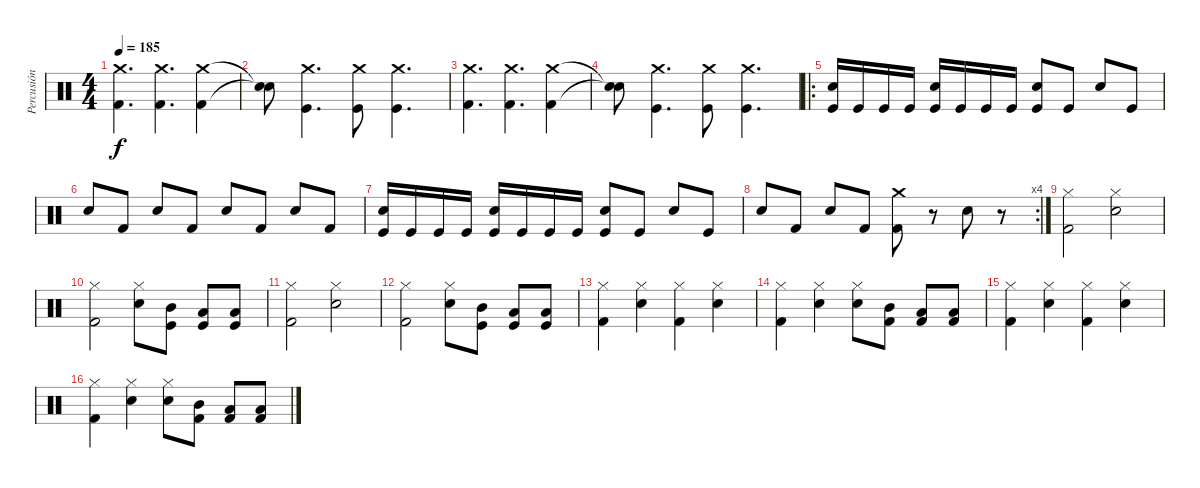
\track ("Percusión" "Percusión") {instrument percussion}
\staff {score}
\articulation defaults
\ts (4 4)
\tempo 185
\clef neutral
\ks c
("Crash medium (hit)" "Kick (hit) 2").4{d dy f} ("Crash medium (hit)" "Kick (hit) 2").4{d} ("Crash medium (hit)" "Kick (hit) 2").4 |
("Snare (hit)"{t} "Snare (hit)"{t}).8 ("Crash medium (hit)" "Kick (hit)").4{d} ("Crash medium (hit)" "Kick (hit)").8 ("Crash medium (hit)" "Kick (hit)").4{d} |
("Crash medium (hit)" "Kick (hit) 2").4{d} ("Crash medium (hit)" "Kick (hit) 2").4{d} ("Crash medium (hit)" "Kick (hit) 2").4 |
("Snare (hit)"{t} "Snare (hit)"{t}).8 ("Crash medium (hit)" "Kick (hit)").4{d} ("Crash medium (hit)" "Kick (hit)").8 ("Crash medium (hit)" "Kick (hit)").4{d} |
\ro
("Snare (hit) 2" "Kick (hit)").16 "Kick (hit)".16 "Kick (hit)".16 "Kick (hit)".16 ("Snare (hit) 2" "Kick (hit)").16 "Kick (hit)".16 "Kick (hit)".16 "Kick (hit)".16 ("Snare (hit) 2" "Kick (hit)").8 "Kick (hit)".8 "Snare (hit) 2".8 "Kick (hit)".8 |
"Snare (hit) 2".8 "Kick (hit) 2".8 "Snare (hit) 2".8 "Kick (hit) 2".8 "Snare (hit) 2".8 "Kick (hit) 2".8 "Snare (hit) 2".8 "Kick (hit) 2".8 |
("Snare (hit) 2" "Kick (hit)").16 "Kick (hit)".16 "Kick (hit)".16 "Kick (hit)".16 ("Snare (hit) 2" "Kick (hit)").16 "Kick (hit)".16 "Kick (hit)".16 "Kick (hit)".16 ("Snare (hit) 2" "Kick (hit)").8 "Kick (hit)".8 "Snare (hit) 2".8 "Kick (hit)".8 |
\rc 4 "Snare (hit) 2".8 "Kick (hit) 2".8 "Snare (hit) 2".8 "Kick (hit) 2".8
("Crash medium (hit)" "Kick (hit) 2").8 r.8 "Snare (hit) 2".8 r.8 |
("Hi-Hat (closed)" "Kick (hit) 2").2 ("Hi-Hat (closed)" "Snare (hit) 2").2 |
("Hi-Hat (closed)" "Kick (hit) 2").2 ("Hi-Hat (closed)" "Snare (hit) 2").8 ("Kick (hit)" "Mid Tom (hit)").8 ("Kick (hit)" "Low Tom (hit)").8 ("Kick (hit)" "Low Tom (hit)").8 |
("Hi-Hat (closed)" "Kick (hit) 2").2 ("Hi-Hat (closed)" "Snare (hit) 2").2 |
("Hi-Hat (closed)" "Kick (hit) 2").2 ("Hi-Hat (closed)" "Snare (hit) 2").8 ("Kick (hit)" "Mid Tom (hit)").8 ("Kick (hit)" "Low Tom (hit)").8 ("Kick (hit)" "Low Tom (hit)").8 |
("Hi-Hat (closed)" "Kick (hit) 2").4 ("Hi-Hat (closed)" "Snare (hit) 2").4 ("Hi-Hat (closed)" "Kick (hit) 2").4 ("Hi-Hat (closed)" "Snare (hit) 2").4 |
("Hi-Hat (closed)" "Kick (hit) 2").4 ("Hi-Hat (closed)" "Snare (hit) 2").4 ("Hi-Hat (closed)" "Snare (hit) 2").8 ("Mid Tom (hit)" "Kick (hit) 2").8 ("Low Tom (hit)" "Kick (hit) 2").8 ("Low Tom (hit)" "Kick (hit) 2").8 |
("Hi-Hat (closed)" "Kick (hit) 2").4 ("Hi-Hat (closed)" "Snare (hit) 2").4 ("Hi-Hat (closed)" "Kick (hit) 2").4 ("Hi-Hat (closed)" "Snare (hit) 2").4 |
("Hi-Hat (closed)" "Kick (hit) 2").4 ("Hi-Hat (closed)" "Snare (hit) 2").4 ("Hi-Hat (closed)" "Snare (hit) 2").8 ("Mid Tom (hit)" "Kick (hit) 2").8 ("Low Tom (hit)" "Kick (hit) 2").8 ("Low Tom (hit)" "Kick (hit) 2").8
